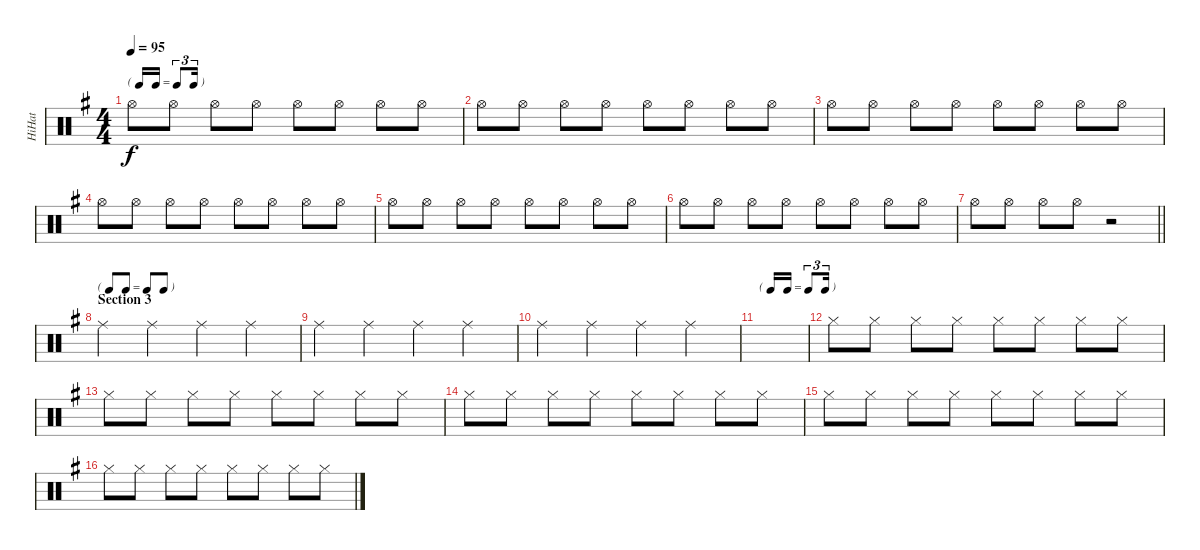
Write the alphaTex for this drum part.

\track ("HiHat" "HiHat") {instrument percussion}
\staff {score}
\articulation defaults
\ts (4 4)
\tf triplet16th
\tempo 95
\clef neutral
\ks eminor "Hi-Hat (open)".8{dy f} "Hi-Hat (open)".8 "Hi-Hat (open)".8 "Hi-Hat (open)".8 "Hi-Hat (open)".8 "Hi-Hat (open)".8 "Hi-Hat (open)".8 "Hi-Hat (open)".8
|
"Hi-Hat (open)".8 "Hi-Hat (open)".8 "Hi-Hat (open)".8 "Hi-Hat (open)".8 "Hi-Hat (open)".8 "Hi-Hat (open)".8 "Hi-Hat (open)".8 "Hi-Hat (open)".8 |
"Hi-Hat (open)".8 "Hi-Hat (open)".8 "Hi-Hat (open)".8 "Hi-Hat (open)".8 "Hi-Hat (open)".8 "Hi-Hat (open)".8 "Hi-Hat (open)".8 "Hi-Hat (open)".8 |
"Hi-Hat (open)".8 "Hi-Hat (open)".8 "Hi-Hat (open)".8 "Hi-Hat (open)".8 "Hi-Hat (open)".8 "Hi-Hat (open)".8 "Hi-Hat (open)".8 "Hi-Hat (open)".8 |
"Hi-Hat (open)".8 "Hi-Hat (open)".8 "Hi-Hat (open)".8 "Hi-Hat (open)".8 "Hi-Hat (open)".8 "Hi-Hat (open)".8 "Hi-Hat (open)".8 "Hi-Hat (open)".8 |
"Hi-Hat (open)".8 "Hi-Hat (open)".8 "Hi-Hat (open)".8 "Hi-Hat (open)".8 "Hi-Hat (open)".8 "Hi-Hat (open)".8 "Hi-Hat (open)".8 "Hi-Hat (open)".8 |
\barLineRight lightlight "Hi-Hat (open)".8 "Hi-Hat (open)".8 "Hi-Hat (open)".8 "Hi-Hat (open)".8
r.2 |
\tf none
\section ("" "Section 3")
"Ride (middle)".4 "Ride (middle)".4 "Ride (middle)".4 "Ride (middle)".4 |
"Ride (middle)".4 "Ride (middle)".4 "Ride (middle)".4 "Ride (middle)".4 |
"Ride (middle)".4 "Ride (middle)".4 "Ride (middle)".4 "Ride (middle)".4 |
\tf triplet16th
|
"Hi-Hat (closed)".8 "Hi-Hat (closed)".8 "Hi-Hat (closed)".8 "Hi-Hat (closed)".8 "Hi-Hat (closed)".8 "Hi-Hat (closed)".8 "Hi-Hat (closed)".8 "Hi-Hat (closed)".8 |
"Hi-Hat (closed)".8 "Hi-Hat (closed)".8 "Hi-Hat (closed)".8 "Hi-Hat (closed)".8 "Hi-Hat (closed)".8 "Hi-Hat (closed)".8 "Hi-Hat (closed)".8 "Hi-Hat (closed)".8 |
"Hi-Hat (closed)".8 "Hi-Hat (closed)".8 "Hi-Hat (closed)".8 "Hi-Hat (closed)".8 "Hi-Hat (closed)".8 "Hi-Hat (closed)".8 "Hi-Hat (closed)".8 "Hi-Hat (closed)".8 |
"Hi-Hat (closed)".8 "Hi-Hat (closed)".8 "Hi-Hat (closed)".8 "Hi-Hat (closed)".8 "Hi-Hat (closed)".8 "Hi-Hat (closed)".8 "Hi-Hat (closed)".8 "Hi-Hat (closed)".8 |
"Hi-Hat (closed)".8 "Hi-Hat (closed)".8 "Hi-Hat (closed)".8 "Hi-Hat (closed)".8 "Hi-Hat (closed)".8 "Hi-Hat (closed)".8 "Hi-Hat (closed)".8 "Hi-Hat (closed)".8
